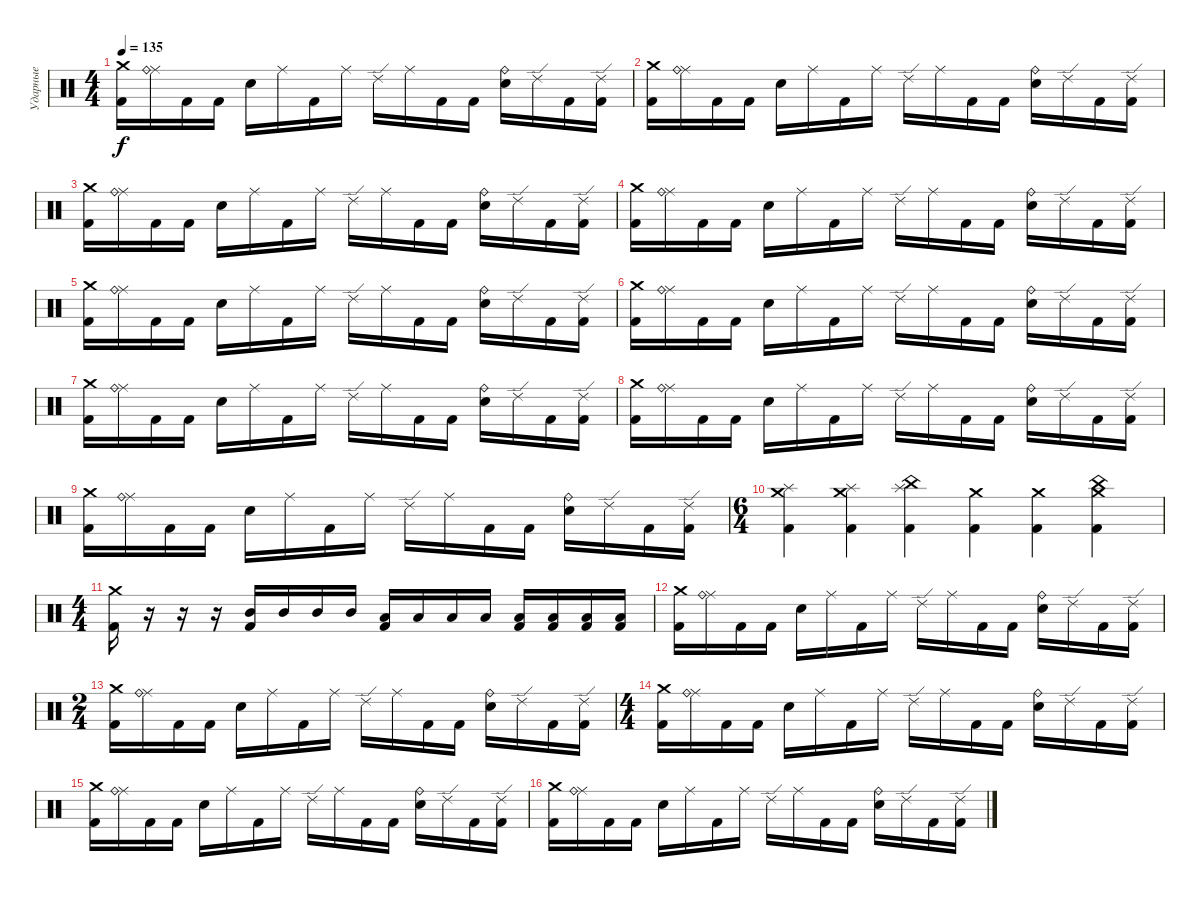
\track ("Ударные" "Ударные") {instrument percussion}
\staff {score}
\articulation defaults
\ts (4 4)
\tempo 135
\clef neutral
\ks c
("Kick (hit) 2" "Crash medium (hit)").16{dy f} ("Ride (middle)" "Ride (bell)").16 "Kick (hit) 2".16 "Kick (hit) 2".16 "Snare (hit) 2".16 "Ride (middle)".16 "Kick (hit) 2".16 "Ride (middle)".16 "Ride (edge) 2".16 "Ride (middle)".16 "Kick (hit) 2".16 "Kick (hit) 2".16 ("Snare (hit) 2" "Ride (bell)").16 "Ride (edge) 2".16 "Kick (hit) 2".16 ("Ride (edge) 2" "Kick (hit) 2").16 |
("Kick (hit) 2" "Crash medium (hit)").16 ("Ride (middle)" "Ride (bell)").16 "Kick (hit) 2".16 "Kick (hit) 2".16 "Snare (hit) 2".16 "Ride (middle)".16 "Kick (hit) 2".16 "Ride (middle)".16 "Ride (edge) 2".16 "Ride (middle)".16 "Kick (hit) 2".16 "Kick (hit) 2".16 ("Snare (hit) 2" "Ride (bell)").16 "Ride (edge) 2".16 "Kick (hit) 2".16 ("Ride (edge) 2" "Kick (hit) 2").16 |
("Kick (hit) 2" "Crash medium (hit)").16 ("Ride (middle)" "Ride (bell)").16 "Kick (hit) 2".16 "Kick (hit) 2".16 "Snare (hit) 2".16 "Ride (middle)".16 "Kick (hit) 2".16 "Ride (middle)".16 "Ride (edge) 2".16 "Ride (middle)".16 "Kick (hit) 2".16 "Kick (hit) 2".16 ("Snare (hit) 2" "Ride (bell)").16 "Ride (edge) 2".16 "Kick (hit) 2".16 ("Ride (edge) 2" "Kick (hit) 2").16 |
("Kick (hit) 2" "Crash medium (hit)").16 ("Ride (middle)" "Ride (bell)").16 "Kick (hit) 2".16 "Kick (hit) 2".16 "Snare (hit) 2".16 "Ride (middle)".16 "Kick (hit) 2".16 "Ride (middle)".16 "Ride (edge) 2".16 "Ride (middle)".16 "Kick (hit) 2".16 "Kick (hit) 2".16 ("Snare (hit) 2" "Ride (bell)").16 "Ride (edge) 2".16 "Kick (hit) 2".16 ("Ride (edge) 2" "Kick (hit) 2").16 |
("Kick (hit) 2" "Crash medium (hit)").16 ("Ride (middle)" "Ride (bell)").16 "Kick (hit) 2".16 "Kick (hit) 2".16 "Snare (hit) 2".16 "Ride (middle)".16 "Kick (hit) 2".16 "Ride (middle)".16 "Ride (edge) 2".16 "Ride (middle)".16 "Kick (hit) 2".16 "Kick (hit) 2".16 ("Snare (hit) 2" "Ride (bell)").16 "Ride (edge) 2".16 "Kick (hit) 2".16 ("Ride (edge) 2" "Kick (hit) 2").16 |
("Kick (hit) 2" "Crash medium (hit)").16 ("Ride (middle)" "Ride (bell)").16 "Kick (hit) 2".16 "Kick (hit) 2".16 "Snare (hit) 2".16 "Ride (middle)".16 "Kick (hit) 2".16 "Ride (middle)".16 "Ride (edge) 2".16 "Ride (middle)".16 "Kick (hit) 2".16 "Kick (hit) 2".16 ("Snare (hit) 2" "Ride (bell)").16 "Ride (edge) 2".16 "Kick (hit) 2".16 ("Ride (edge) 2" "Kick (hit) 2").16 |
("Kick (hit) 2" "Crash medium (hit)").16 ("Ride (middle)" "Ride (bell)").16 "Kick (hit) 2".16 "Kick (hit) 2".16 "Snare (hit) 2".16 "Ride (middle)".16 "Kick (hit) 2".16 "Ride (middle)".16 "Ride (edge) 2".16 "Ride (middle)".16 "Kick (hit) 2".16 "Kick (hit) 2".16 ("Snare (hit) 2" "Ride (bell)").16 "Ride (edge) 2".16 "Kick (hit) 2".16 ("Ride (edge) 2" "Kick (hit) 2").16 |
("Kick (hit) 2" "Crash medium (hit)").16 ("Ride (middle)" "Ride (bell)").16 "Kick (hit) 2".16 "Kick (hit) 2".16 "Snare (hit) 2".16 "Ride (middle)".16 "Kick (hit) 2".16 "Ride (middle)".16 "Ride (edge) 2".16 "Ride (middle)".16 "Kick (hit) 2".16 "Kick (hit) 2".16 ("Snare (hit) 2" "Ride (bell)").16 "Ride (edge) 2".16 "Kick (hit) 2".16 ("Ride (edge) 2" "Kick (hit) 2").16 |
("Kick (hit) 2" "Crash medium (hit)").16 ("Ride (middle)" "Ride (bell)").16 "Kick (hit) 2".16 "Kick (hit) 2".16 "Snare (hit) 2".16 "Ride (middle)".16 "Kick (hit) 2".16 "Ride (middle)".16 "Ride (edge) 2".16 "Ride (middle)".16 "Kick (hit) 2".16 "Kick (hit) 2".16 ("Snare (hit) 2" "Ride (bell)").16 "Ride (edge) 2".16 "Kick (hit) 2".16 ("Ride (edge) 2" "Kick (hit) 2").16 |
\ts (6 4)
("Kick (hit) 2" "Crash medium (hit)" "Splash (hit)").4 ("Kick (hit) 2" "Splash (hit)" "Crash medium (hit)").4 ("Kick (hit) 2" "China (hit)" "Splash (hit)").4 ("Kick (hit) 2" "Crash medium (hit)").4 ("Kick (hit) 2" "Crash medium (hit)").4 ("Kick (hit) 2" "Crash medium (hit)" "China (hit)").4 |
\ts (4 4)
("Kick (hit) 2" "Crash medium (hit)").16 r.16 r.16 r.16 ("Mid Tom (hit)" "Kick (hit) 2").16 "Mid Tom (hit)".16 "Mid Tom (hit)".16 "Mid Tom (hit)".16 ("Low Tom (hit)" "Kick (hit) 2").16 "Low Tom (hit)".16 "Low Tom (hit)".16 "Low Tom (hit)".16 ("Low Floor Tom (hit)" "Kick (hit) 2").16 ("Low Floor Tom (hit)" "Kick (hit) 2").16 ("Low Floor Tom (hit)" "Kick (hit) 2").16 ("Low Floor Tom (hit)" "Kick (hit) 2").16 |
("Kick (hit) 2" "Crash medium (hit)").16 ("Ride (middle)" "Ride (bell)").16 "Kick (hit) 2".16 "Kick (hit) 2".16 "Snare (hit) 2".16 "Ride (middle)".16 "Kick (hit) 2".16 "Ride (middle)".16 "Ride (edge) 2".16 "Ride (middle)".16 "Kick (hit) 2".16 "Kick (hit) 2".16 ("Snare (hit) 2" "Ride (bell)").16 "Ride (edge) 2".16 "Kick (hit) 2".16 ("Ride (edge) 2" "Kick (hit) 2").16 |
\ts (2 4)
("Kick (hit) 2" "Crash medium (hit)").16 ("Ride (middle)" "Ride (bell)").16 "Kick (hit) 2".16 "Kick (hit) 2".16 "Snare (hit) 2".16 "Ride (middle)".16 "Kick (hit) 2".16 "Ride (middle)".16 "Ride (edge) 2".16 "Ride (middle)".16 "Kick (hit) 2".16 "Kick (hit) 2".16 ("Snare (hit) 2" "Ride (bell)").16 "Ride (edge) 2".16 "Kick (hit) 2".16 ("Ride (edge) 2" "Kick (hit) 2").16 |
\ts (4 4)
("Kick (hit) 2" "Crash medium (hit)").16 ("Ride (middle)" "Ride (bell)").16 "Kick (hit) 2".16 "Kick (hit) 2".16 "Snare (hit) 2".16 "Ride (middle)".16 "Kick (hit) 2".16 "Ride (middle)".16 "Ride (edge) 2".16 "Ride (middle)".16 "Kick (hit) 2".16 "Kick (hit) 2".16 ("Snare (hit) 2" "Ride (bell)").16 "Ride (edge) 2".16 "Kick (hit) 2".16 ("Ride (edge) 2" "Kick (hit) 2").16 |
("Kick (hit) 2" "Crash medium (hit)").16 ("Ride (middle)" "Ride (bell)").16 "Kick (hit) 2".16 "Kick (hit) 2".16 "Snare (hit) 2".16 "Ride (middle)".16 "Kick (hit) 2".16 "Ride (middle)".16 "Ride (edge) 2".16 "Ride (middle)".16 "Kick (hit) 2".16 "Kick (hit) 2".16 ("Snare (hit) 2" "Ride (bell)").16 "Ride (edge) 2".16 "Kick (hit) 2".16 ("Ride (edge) 2" "Kick (hit) 2").16 |
("Kick (hit) 2" "Crash medium (hit)").16 ("Ride (middle)" "Ride (bell)").16 "Kick (hit) 2".16 "Kick (hit) 2".16 "Snare (hit) 2".16 "Ride (middle)".16 "Kick (hit) 2".16 "Ride (middle)".16 "Ride (edge) 2".16 "Ride (middle)".16 "Kick (hit) 2".16 "Kick (hit) 2".16 ("Snare (hit) 2" "Ride (bell)").16 "Ride (edge) 2".16 "Kick (hit) 2".16 ("Ride (edge) 2" "Kick (hit) 2").16
